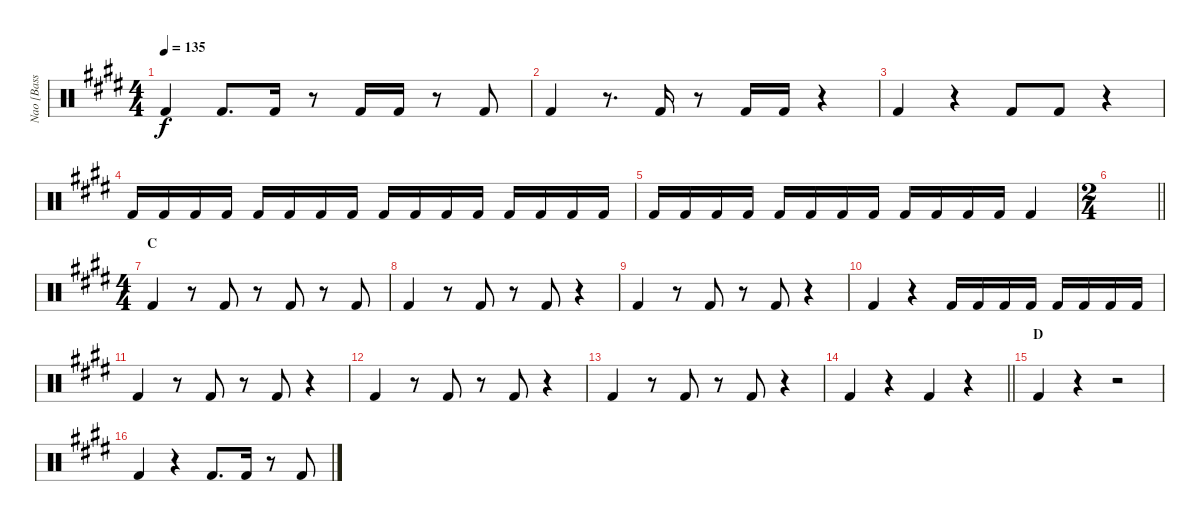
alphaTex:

\track ("Nao [Bass Drum]" "Nao [Bass ") {instrument percussion}
\staff {score}
\articulation defaults
\ts (4 4)
\tempo 135
\clef neutral
\ks e "Kick (hit) 2".4{dy f} "Kick (hit) 2".8{d} "Kick (hit) 2".16
r.8 "Kick (hit) 2".16 "Kick (hit) 2".16 r.8 "Kick (hit) 2".8 |
"Kick (hit) 2".4 r.8{d} "Kick (hit) 2".16 r.8 "Kick (hit) 2".16 "Kick (hit) 2".16 r.4 |
"Kick (hit) 2".4 r.4 "Kick (hit) 2".8 "Kick (hit) 2".8 r.4 |
"Kick (hit) 2".16 "Kick (hit) 2".16 "Kick (hit) 2".16 "Kick (hit) 2".16 "Kick (hit) 2".16 "Kick (hit) 2".16 "Kick (hit) 2".16 "Kick (hit) 2".16 "Kick (hit) 2".16 "Kick (hit) 2".16 "Kick (hit) 2".16 "Kick (hit) 2".16 "Kick (hit) 2".16 "Kick (hit) 2".16 "Kick (hit) 2".16 "Kick (hit) 2".16 |
"Kick (hit) 2".16 "Kick (hit) 2".16 "Kick (hit) 2".16 "Kick (hit) 2".16 "Kick (hit) 2".16 "Kick (hit) 2".16 "Kick (hit) 2".16 "Kick (hit) 2".16 "Kick (hit) 2".16 "Kick (hit) 2".16 "Kick (hit) 2".16 "Kick (hit) 2".16 "Kick (hit) 2".4 |
\ts (2 4)
\barLineRight lightlight
|
\ts (4 4)
\section ("" "C")
"Kick (hit) 2".4 r.8 "Kick (hit) 2".8 r.8 "Kick (hit) 2".8 r.8 "Kick (hit) 2".8 |
"Kick (hit) 2".4 r.8 "Kick (hit) 2".8 r.8 "Kick (hit) 2".8 r.4 |
"Kick (hit) 2".4 r.8 "Kick (hit) 2".8 r.8 "Kick (hit) 2".8 r.4 |
"Kick (hit) 2".4 r.4 "Kick (hit) 2".16 "Kick (hit) 2".16 "Kick (hit) 2".16 "Kick (hit) 2".16 "Kick (hit) 2".16 "Kick (hit) 2".16 "Kick (hit) 2".16 "Kick (hit) 2".16 |
"Kick (hit) 2".4 r.8 "Kick (hit) 2".8 r.8 "Kick (hit) 2".8 r.4 |
"Kick (hit) 2".4 r.8 "Kick (hit) 2".8 r.8 "Kick (hit) 2".8 r.4 |
"Kick (hit) 2".4 r.8 "Kick (hit) 2".8 r.8 "Kick (hit) 2".8 r.4 |
\barLineRight lightlight "Kick (hit) 2".4
r.4 "Kick (hit) 2".4 r.4 |
\section ("" "D")
"Kick (hit) 2".4 r.4 r.2 |
"Kick (hit) 2".4 r.4 "Kick (hit) 2".8{d} "Kick (hit) 2".16 r.8 "Kick (hit) 2".8
